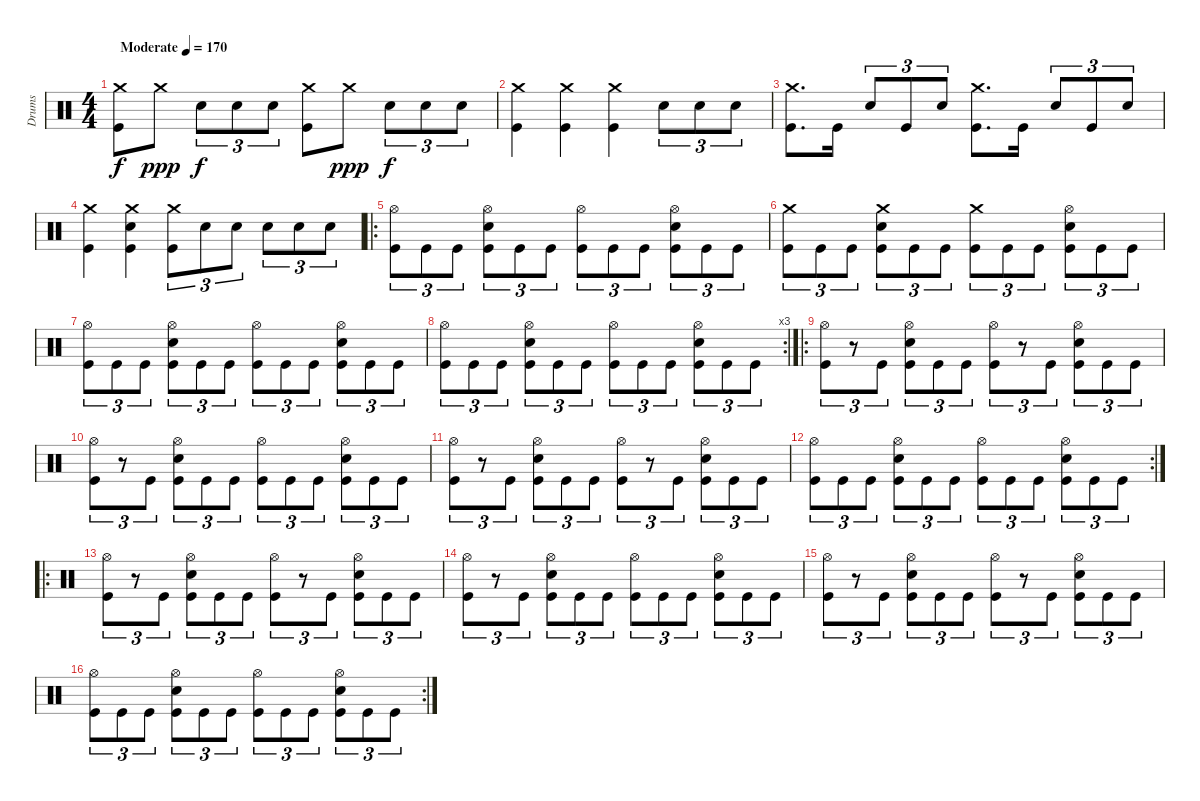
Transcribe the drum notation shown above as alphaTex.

\track ("Drums" "Drums") {instrument percussion}
\staff {score}
\articulation defaults
\ts (4 4)
\tempo (170 "Moderate")
\clef neutral
\ks c
("Crash medium (hit)" "Kick (hit)").8{dy f} "Crash medium (hit)".8{dy ppp} "Snare (hit) 2".8{tu (3 2) dy f} "Snare (hit) 2".8{tu (3 2)} "Snare (hit) 2".8{tu (3 2)} ("Crash medium (hit)" "Kick (hit)").8 "Crash medium (hit)".8{dy ppp} "Snare (hit) 2".8{tu (3 2) dy f} "Snare (hit) 2".8{tu (3 2)} "Snare (hit) 2".8{tu (3 2)} |
("Crash medium (hit)" "Kick (hit)").4 ("Crash medium (hit)" "Kick (hit)").4 ("Crash medium (hit)" "Kick (hit)").4 "Snare (hit) 2".8{tu (3 2)} "Snare (hit) 2".8{tu (3 2)} "Snare (hit) 2".8{tu (3 2)} |
("Crash medium (hit)" "Kick (hit)").8{d} "Kick (hit)".16 "Snare (hit) 2".8{tu (3 2)} "Kick (hit)".8{tu (3 2)} "Snare (hit) 2".8{tu (3 2)} ("Crash medium (hit)" "Kick (hit)").8{d} "Kick (hit)".16 "Snare (hit) 2".8{tu (3 2)} "Kick (hit)".8{tu (3 2)} "Snare (hit) 2".8{tu (3 2)} |
("Crash medium (hit)" "Kick (hit)").4 ("Crash medium (hit)" "Snare (hit) 2" "Kick (hit)").4 ("Crash medium (hit)" "Kick (hit)").8{tu (3 2)} "Snare (hit) 2".8{tu (3 2)} "Snare (hit) 2".8{tu (3 2)} "Snare (hit) 2".8{tu (3 2)} "Snare (hit) 2".8{tu (3 2)} "Snare (hit) 2".8{tu (3 2)} |
\ro
("Hi-Hat (open)" "Kick (hit)").8{tu (3 2)} "Kick (hit)".8{tu (3 2)} "Kick (hit)".8{tu (3 2)} ("Hi-Hat (open)" "Snare (hit) 2" "Kick (hit)").8{tu (3 2)} "Kick (hit)".8{tu (3 2)} "Kick (hit)".8{tu (3 2)} ("Hi-Hat (open)" "Kick (hit)").8{tu (3 2)} "Kick (hit)".8{tu (3 2)} "Kick (hit)".8{tu (3 2)} ("Hi-Hat (open)" "Snare (hit) 2" "Kick (hit)").8{tu (3 2)} "Kick (hit)".8{tu (3 2)} "Kick (hit)".8{tu (3 2)} |
("Crash medium (hit)" "Kick (hit)").8{tu (3 2)} "Kick (hit)".8{tu (3 2)} "Kick (hit)".8{tu (3 2)} ("Crash medium (hit)" "Snare (hit) 2" "Kick (hit)").8{tu (3 2)} "Kick (hit)".8{tu (3 2)} "Kick (hit)".8{tu (3 2)} ("Crash medium (hit)" "Kick (hit)").8{tu (3 2)} "Kick (hit)".8{tu (3 2)} "Kick (hit)".8{tu (3 2)} ("Hi-Hat (open)" "Snare (hit) 2" "Kick (hit)").8{tu (3 2)} "Kick (hit)".8{tu (3 2)} "Kick (hit)".8{tu (3 2)} |
("Hi-Hat (open)" "Kick (hit)").8{tu (3 2)} "Kick (hit)".8{tu (3 2)} "Kick (hit)".8{tu (3 2)} ("Hi-Hat (open)" "Snare (hit) 2" "Kick (hit)").8{tu (3 2)} "Kick (hit)".8{tu (3 2)} "Kick (hit)".8{tu (3 2)} ("Hi-Hat (open)" "Kick (hit)").8{tu (3 2)} "Kick (hit)".8{tu (3 2)} "Kick (hit)".8{tu (3 2)} ("Hi-Hat (open)" "Snare (hit) 2" "Kick (hit)").8{tu (3 2)} "Kick (hit)".8{tu (3 2)} "Kick (hit)".8{tu (3 2)} |
\rc 3
("Hi-Hat (open)" "Kick (hit)").8{tu (3 2)} "Kick (hit)".8{tu (3 2)} "Kick (hit)".8{tu (3 2)} ("Hi-Hat (open)" "Snare (hit) 2" "Kick (hit)").8{tu (3 2)} "Kick (hit)".8{tu (3 2)} "Kick (hit)".8{tu (3 2)} ("Hi-Hat (open)" "Kick (hit)").8{tu (3 2)} "Kick (hit)".8{tu (3 2)} "Kick (hit)".8{tu (3 2)} ("Hi-Hat (open)" "Snare (hit) 2" "Kick (hit)").8{tu (3 2)} "Kick (hit)".8{tu (3 2)} "Kick (hit)".8{tu (3 2)} |
\ro
("Hi-Hat (open)" "Kick (hit)").8{tu (3 2)} r.8{tu (3 2)} "Kick (hit)".8{tu (3 2)} ("Hi-Hat (open)" "Snare (hit) 2" "Kick (hit)").8{tu (3 2)} "Kick (hit)".8{tu (3 2)} "Kick (hit)".8{tu (3 2)} ("Hi-Hat (open)" "Kick (hit)").8{tu (3 2)} r.8{tu (3 2)} "Kick (hit)".8{tu (3 2)} ("Hi-Hat (open)" "Snare (hit) 2" "Kick (hit)").8{tu (3 2)} "Kick (hit)".8{tu (3 2)} "Kick (hit)".8{tu (3 2)} |
("Hi-Hat (open)" "Kick (hit)").8{tu (3 2)} r.8{tu (3 2)} "Kick (hit)".8{tu (3 2)} ("Hi-Hat (open)" "Snare (hit) 2" "Kick (hit)").8{tu (3 2)} "Kick (hit)".8{tu (3 2)} "Kick (hit)".8{tu (3 2)} ("Hi-Hat (open)" "Kick (hit)").8{tu (3 2)} "Kick (hit)".8{tu (3 2)} "Kick (hit)".8{tu (3 2)} ("Hi-Hat (open)" "Snare (hit) 2" "Kick (hit)").8{tu (3 2)} "Kick (hit)".8{tu (3 2)} "Kick (hit)".8{tu (3 2)} |
("Hi-Hat (open)" "Kick (hit)").8{tu (3 2)} r.8{tu (3 2)} "Kick (hit)".8{tu (3 2)} ("Hi-Hat (open)" "Snare (hit) 2" "Kick (hit)").8{tu (3 2)} "Kick (hit)".8{tu (3 2)} "Kick (hit)".8{tu (3 2)} ("Hi-Hat (open)" "Kick (hit)").8{tu (3 2)} r.8{tu (3 2)} "Kick (hit)".8{tu (3 2)} ("Hi-Hat (open)" "Snare (hit) 2" "Kick (hit)").8{tu (3 2)} "Kick (hit)".8{tu (3 2)} "Kick (hit)".8{tu (3 2)} |
\rc 2
("Hi-Hat (open)" "Kick (hit)").8{tu (3 2)} "Kick (hit)".8{tu (3 2)} "Kick (hit)".8{tu (3 2)} ("Hi-Hat (open)" "Snare (hit) 2" "Kick (hit)").8{tu (3 2)} "Kick (hit)".8{tu (3 2)} "Kick (hit)".8{tu (3 2)} ("Hi-Hat (open)" "Kick (hit)").8{tu (3 2)} "Kick (hit)".8{tu (3 2)} "Kick (hit)".8{tu (3 2)} ("Hi-Hat (open)" "Snare (hit) 2" "Kick (hit)").8{tu (3 2)} "Kick (hit)".8{tu (3 2)} "Kick (hit)".8{tu (3 2)} |
\ro
("Hi-Hat (open)" "Kick (hit)").8{tu (3 2)} r.8{tu (3 2)} "Kick (hit)".8{tu (3 2)} ("Hi-Hat (open)" "Snare (hit) 2" "Kick (hit)").8{tu (3 2)} "Kick (hit)".8{tu (3 2)} "Kick (hit)".8{tu (3 2)} ("Hi-Hat (open)" "Kick (hit)").8{tu (3 2)} r.8{tu (3 2)} "Kick (hit)".8{tu (3 2)} ("Hi-Hat (open)" "Snare (hit) 2" "Kick (hit)").8{tu (3 2)} "Kick (hit)".8{tu (3 2)} "Kick (hit)".8{tu (3 2)} |
("Hi-Hat (open)" "Kick (hit)").8{tu (3 2)} r.8{tu (3 2)} "Kick (hit)".8{tu (3 2)} ("Hi-Hat (open)" "Snare (hit) 2" "Kick (hit)").8{tu (3 2)} "Kick (hit)".8{tu (3 2)} "Kick (hit)".8{tu (3 2)} ("Hi-Hat (open)" "Kick (hit)").8{tu (3 2)} "Kick (hit)".8{tu (3 2)} "Kick (hit)".8{tu (3 2)} ("Hi-Hat (open)" "Snare (hit) 2" "Kick (hit)").8{tu (3 2)} "Kick (hit)".8{tu (3 2)} "Kick (hit)".8{tu (3 2)} |
("Hi-Hat (open)" "Kick (hit)").8{tu (3 2)} r.8{tu (3 2)} "Kick (hit)".8{tu (3 2)} ("Hi-Hat (open)" "Snare (hit) 2" "Kick (hit)").8{tu (3 2)} "Kick (hit)".8{tu (3 2)} "Kick (hit)".8{tu (3 2)} ("Hi-Hat (open)" "Kick (hit)").8{tu (3 2)} r.8{tu (3 2)} "Kick (hit)".8{tu (3 2)} ("Hi-Hat (open)" "Snare (hit) 2" "Kick (hit)").8{tu (3 2)} "Kick (hit)".8{tu (3 2)} "Kick (hit)".8{tu (3 2)} |
\rc 2
("Hi-Hat (open)" "Kick (hit)").8{tu (3 2)} "Kick (hit)".8{tu (3 2)} "Kick (hit)".8{tu (3 2)} ("Hi-Hat (open)" "Snare (hit) 2" "Kick (hit)").8{tu (3 2)} "Kick (hit)".8{tu (3 2)} "Kick (hit)".8{tu (3 2)} ("Hi-Hat (open)" "Kick (hit)").8{tu (3 2)} "Kick (hit)".8{tu (3 2)} "Kick (hit)".8{tu (3 2)} ("Hi-Hat (open)" "Snare (hit) 2" "Kick (hit)").8{tu (3 2)} "Kick (hit)".8{tu (3 2)} "Kick (hit)".8{tu (3 2)}
